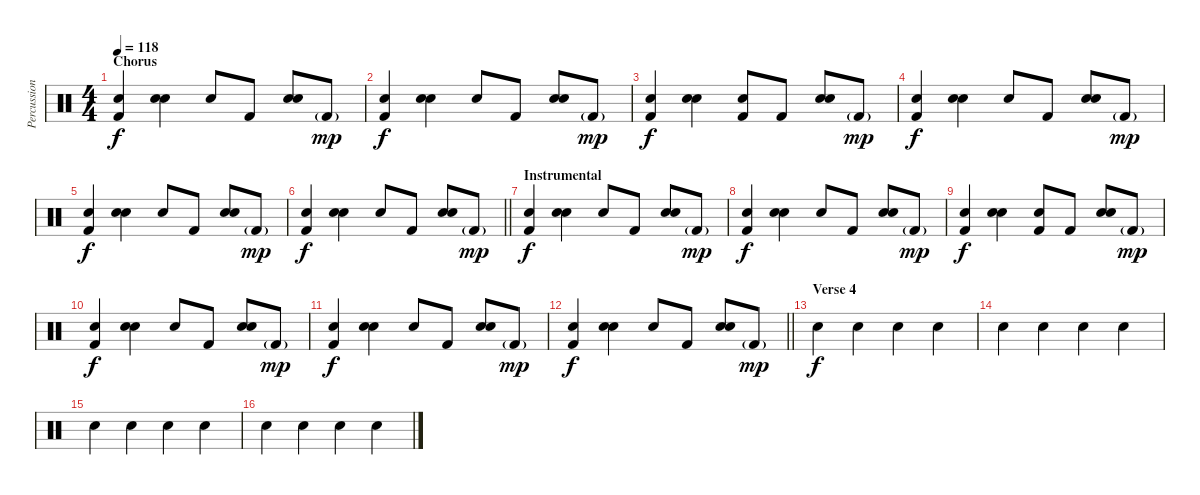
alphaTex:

\track ("Percussion" "Percussion") {instrument percussion}
\staff {score}
\articulation defaults
\ts (4 4)
\section ("" "Chorus")
\tempo 118
\clef neutral
\ks c
("Hand Clap (hit)" "Kick (hit) 2").4{dy f} ("Hand Clap (hit)" "Snare (hit) 2").4 "Hand Clap (hit)".8 "Kick (hit) 2".8 ("Hand Clap (hit)" "Snare (hit) 2").8 "Kick (hit) 2"{g}.8{dy mp} |
("Hand Clap (hit)" "Kick (hit) 2").4{dy f} ("Hand Clap (hit)" "Snare (hit) 2").4 "Hand Clap (hit)".8 "Kick (hit) 2".8 ("Hand Clap (hit)" "Snare (hit) 2").8 "Kick (hit) 2"{g}.8{dy mp} |
("Hand Clap (hit)" "Kick (hit) 2").4{dy f} ("Hand Clap (hit)" "Snare (hit) 2").4 ("Hand Clap (hit)" "Kick (hit) 2").8 "Kick (hit) 2".8 ("Hand Clap (hit)" "Snare (hit) 2").8 "Kick (hit) 2"{g}.8{dy mp} |
("Hand Clap (hit)" "Kick (hit) 2").4{dy f} ("Hand Clap (hit)" "Snare (hit) 2").4 "Hand Clap (hit)".8 "Kick (hit) 2".8 ("Hand Clap (hit)" "Snare (hit) 2").8 "Kick (hit) 2"{g}.8{dy mp} |
("Hand Clap (hit)" "Kick (hit) 2").4{dy f} ("Hand Clap (hit)" "Snare (hit) 2").4 "Hand Clap (hit)".8 "Kick (hit) 2".8 ("Hand Clap (hit)" "Snare (hit) 2").8 "Kick (hit) 2"{g}.8{dy mp} |
\barLineRight lightlight
("Hand Clap (hit)" "Kick (hit) 2").4{dy f} ("Hand Clap (hit)" "Snare (hit) 2").4 "Hand Clap (hit)".8 "Kick (hit) 2".8 ("Hand Clap (hit)" "Snare (hit) 2").8 "Kick (hit) 2"{g}.8{dy mp} |
\section ("" "Instrumental")
("Hand Clap (hit)" "Kick (hit) 2").4{dy f} ("Hand Clap (hit)" "Snare (hit) 2").4 "Hand Clap (hit)".8 "Kick (hit) 2".8 ("Hand Clap (hit)" "Snare (hit) 2").8 "Kick (hit) 2"{g}.8{dy mp} |
("Hand Clap (hit)" "Kick (hit) 2").4{dy f} ("Hand Clap (hit)" "Snare (hit) 2").4 "Hand Clap (hit)".8 "Kick (hit) 2".8 ("Hand Clap (hit)" "Snare (hit) 2").8 "Kick (hit) 2"{g}.8{dy mp} |
("Hand Clap (hit)" "Kick (hit) 2").4{dy f} ("Hand Clap (hit)" "Snare (hit) 2").4 ("Hand Clap (hit)" "Kick (hit) 2").8 "Kick (hit) 2".8 ("Hand Clap (hit)" "Snare (hit) 2").8 "Kick (hit) 2"{g}.8{dy mp} |
("Hand Clap (hit)" "Kick (hit) 2").4{dy f} ("Hand Clap (hit)" "Snare (hit) 2").4 "Hand Clap (hit)".8 "Kick (hit) 2".8 ("Hand Clap (hit)" "Snare (hit) 2").8 "Kick (hit) 2"{g}.8{dy mp} |
("Hand Clap (hit)" "Kick (hit) 2").4{dy f} ("Hand Clap (hit)" "Snare (hit) 2").4 "Hand Clap (hit)".8 "Kick (hit) 2".8 ("Hand Clap (hit)" "Snare (hit) 2").8 "Kick (hit) 2"{g}.8{dy mp} |
\barLineRight lightlight
("Hand Clap (hit)" "Kick (hit) 2").4{dy f} ("Hand Clap (hit)" "Snare (hit) 2").4 "Hand Clap (hit)".8 "Kick (hit) 2".8 ("Hand Clap (hit)" "Snare (hit) 2").8 "Kick (hit) 2"{g}.8{dy mp} |
\section ("" "Verse 4")
"Hand Clap (hit)".4{dy f} "Hand Clap (hit)".4 "Hand Clap (hit)".4 "Hand Clap (hit)".4 |
"Hand Clap (hit)".4 "Hand Clap (hit)".4 "Hand Clap (hit)".4 "Hand Clap (hit)".4 |
"Hand Clap (hit)".4 "Hand Clap (hit)".4 "Hand Clap (hit)".4 "Hand Clap (hit)".4 |
"Hand Clap (hit)".4 "Hand Clap (hit)".4 "Hand Clap (hit)".4 "Hand Clap (hit)".4
